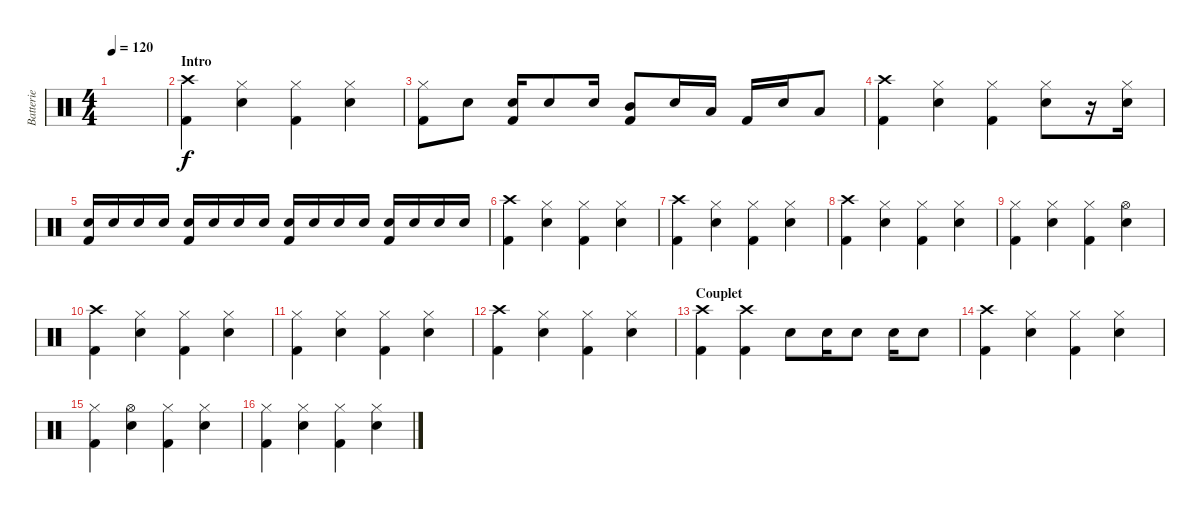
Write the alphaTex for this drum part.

\track ("Batterie" "Batterie") {instrument percussion}
\staff {score}
\articulation defaults
\ts (4 4)
\tempo 120
\clef neutral
\ks c
|
\section ("" "Intro")
("Crash high (hit)" "Kick (hit) 2").4 ("Hi-Hat (closed)" "Snare (hit) 2").4 ("Hi-Hat (closed)" "Kick (hit) 2").4 ("Hi-Hat (closed)" "Snare (hit) 2").4 |
("Hi-Hat (closed)" "Kick (hit) 2").8 "Snare (hit) 2".8 ("Snare (hit) 2" "Kick (hit) 2").16 "Snare (hit) 2".8 "Snare (hit) 2".16 ("Mid Tom (hit)" "Kick (hit) 2").8 "Snare (hit) 2".16 "Low Tom (hit)".16 "Kick (hit) 2".16 "Snare (hit) 2".16 "Low Floor Tom (hit)".8 |
("Crash high (hit)" "Kick (hit) 2").4 ("Hi-Hat (closed)" "Snare (hit) 2").4 ("Hi-Hat (closed)" "Kick (hit) 2").4 ("Hi-Hat (closed)" "Snare (hit) 2").8 r.16 ("Hi-Hat (closed)" "Snare (hit) 2").16 |
("Snare (hit) 2" "Kick (hit) 2").16 "Snare (hit) 2".16 "Snare (hit) 2".16 "Snare (hit) 2".16 ("Snare (hit) 2" "Kick (hit) 2").16 "Snare (hit) 2".16 "Snare (hit) 2".16 "Snare (hit) 2".16 ("Snare (hit) 2" "Kick (hit) 2").16 "Snare (hit) 2".16 "Snare (hit) 2".16 "Snare (hit) 2".16 ("Snare (hit) 2" "Kick (hit) 2").16 "Snare (hit) 2".16 "Snare (hit) 2".16 "Snare (hit) 2".16 |
("Crash high (hit)" "Kick (hit) 2").4 ("Hi-Hat (closed)" "Snare (hit) 2").4 ("Hi-Hat (closed)" "Kick (hit) 2").4 ("Hi-Hat (closed)" "Snare (hit) 2").4 |
("Crash high (hit)" "Kick (hit) 2").4 ("Hi-Hat (closed)" "Snare (hit) 2").4 ("Hi-Hat (closed)" "Kick (hit) 2").4 ("Hi-Hat (closed)" "Snare (hit) 2").4 |
("Crash high (hit)" "Kick (hit) 2").4 ("Hi-Hat (closed)" "Snare (hit) 2").4 ("Hi-Hat (closed)" "Kick (hit) 2").4 ("Hi-Hat (closed)" "Snare (hit) 2").4 |
("Hi-Hat (closed)" "Kick (hit) 2").4 ("Hi-Hat (closed)" "Snare (hit) 2").4 ("Hi-Hat (closed)" "Kick (hit) 2").4 ("Hi-Hat (open)" "Snare (hit) 2").4 |
("Crash high (hit)" "Kick (hit) 2").4 ("Hi-Hat (closed)" "Snare (hit) 2").4 ("Hi-Hat (closed)" "Kick (hit) 2").4 ("Hi-Hat (closed)" "Snare (hit) 2").4 |
("Hi-Hat (closed)" "Kick (hit) 2").4 ("Hi-Hat (closed)" "Snare (hit) 2").4 ("Hi-Hat (closed)" "Kick (hit) 2").4 ("Hi-Hat (closed)" "Snare (hit) 2").4 |
("Crash high (hit)" "Kick (hit) 2").4 ("Hi-Hat (closed)" "Snare (hit) 2").4 ("Hi-Hat (closed)" "Kick (hit) 2").4 ("Hi-Hat (closed)" "Snare (hit) 2").4 |
\section ("" "Couplet")
("Crash high (hit)" "Kick (hit) 2").4 ("Crash high (hit)" "Kick (hit) 2").4 "Snare (hit) 2".8 "Snare (hit) 2".16 "Snare (hit) 2".8 "Snare (hit) 2".16 "Snare (hit) 2".8 |
("Crash high (hit)" "Kick (hit) 2").4 ("Hi-Hat (closed)" "Snare (hit) 2").4 ("Hi-Hat (closed)" "Kick (hit) 2").4 ("Hi-Hat (closed)" "Snare (hit) 2").4 |
("Hi-Hat (closed)" "Kick (hit) 2").4 ("Hi-Hat (open)" "Snare (hit) 2").4 ("Hi-Hat (closed)" "Kick (hit) 2").4 ("Hi-Hat (closed)" "Snare (hit) 2").4 |
("Hi-Hat (closed)" "Kick (hit) 2").4 ("Hi-Hat (closed)" "Snare (hit) 2").4 ("Hi-Hat (closed)" "Kick (hit) 2").4 ("Hi-Hat (closed)" "Snare (hit) 2").4
